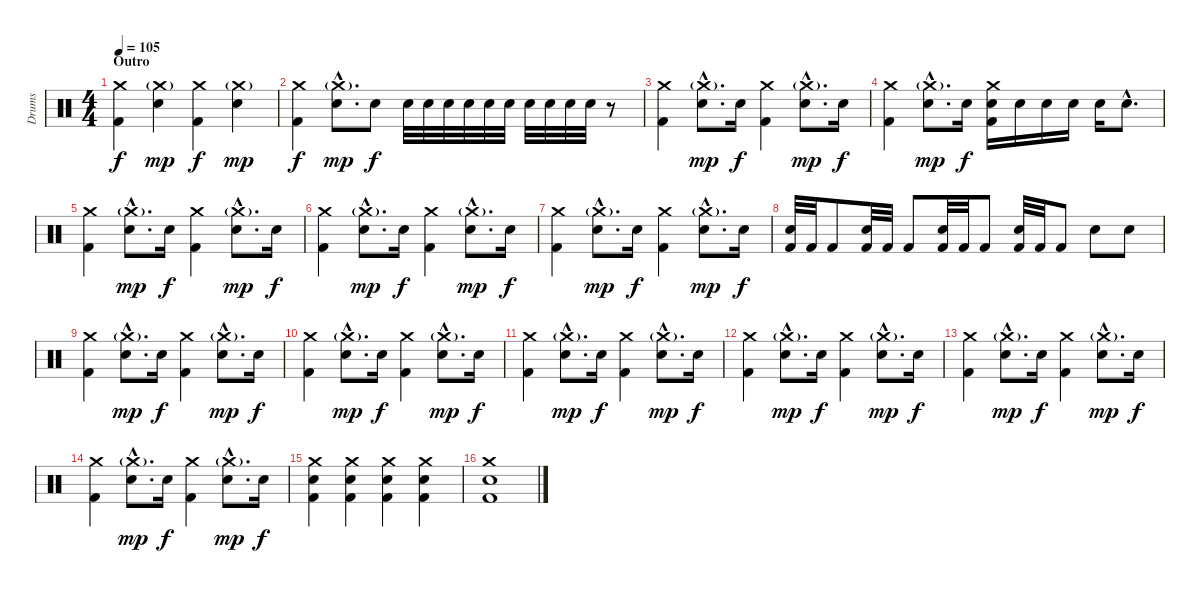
\track ("Drums" "Drums") {instrument percussion}
\staff {score}
\articulation defaults
\ts (4 4)
\section ("" "Outro")
\tempo 105
\clef neutral
\ks c
("Crash medium (hit)" "Kick (hit) 2").4{dy f} ("Crash medium (hit)"{g} "Snare (hit) 2").4{dy mp} ("Crash medium (hit)" "Kick (hit) 2").4{dy f} ("Crash medium (hit)"{g} "Snare (hit) 2").4{dy mp} |
("Crash medium (hit)" "Kick (hit) 2").4{dy f} ("Crash medium (hit)"{g hac} "Snare (hit) 2"{hac}).8{d dy mp} "Snare (hit) 2".8{dy f} "Snare (hit) 2".32 "Snare (hit) 2".32 "Snare (hit) 2".32 "Snare (hit) 2".32 "Snare (hit) 2".32 "Snare (hit) 2".32 "Snare (hit) 2".32 "Snare (hit) 2".32 "Snare (hit) 2".32 "Snare (hit) 2".32 r.8 |
("Crash medium (hit)" "Kick (hit) 2").4 ("Crash medium (hit)"{g hac} "Snare (hit) 2"{hac}).8{d dy mp} "Snare (hit) 2".16{dy f} ("Crash medium (hit)" "Kick (hit) 2").4 ("Crash medium (hit)"{g hac} "Snare (hit) 2"{hac}).8{d dy mp} "Snare (hit) 2".16{dy f} |
("Crash medium (hit)" "Kick (hit) 2").4 ("Crash medium (hit)"{g hac} "Snare (hit) 2"{hac}).8{d dy mp} "Snare (hit) 2".16{dy f} ("Crash medium (hit)" "Snare (hit) 2" "Kick (hit) 2").16 "Snare (hit) 2".16 "Snare (hit) 2".16 "Snare (hit) 2".16 "Snare (hit) 2".16 "Snare (hit) 2"{hac}.8{d} |
("Crash medium (hit)" "Kick (hit) 2").4 ("Crash medium (hit)"{g hac} "Snare (hit) 2"{hac}).8{d dy mp} "Snare (hit) 2".16{dy f} ("Crash medium (hit)" "Kick (hit) 2").4 ("Crash medium (hit)"{g hac} "Snare (hit) 2"{hac}).8{d dy mp} "Snare (hit) 2".16{dy f} |
("Crash medium (hit)" "Kick (hit) 2").4 ("Crash medium (hit)"{g hac} "Snare (hit) 2"{hac}).8{d dy mp} "Snare (hit) 2".16{dy f} ("Crash medium (hit)" "Kick (hit) 2").4 ("Crash medium (hit)"{g hac} "Snare (hit) 2"{hac}).8{d dy mp} "Snare (hit) 2".16{dy f} |
("Crash medium (hit)" "Kick (hit) 2").4 ("Crash medium (hit)"{g hac} "Snare (hit) 2"{hac}).8{d dy mp} "Snare (hit) 2".16{dy f} ("Crash medium (hit)" "Kick (hit) 2").4 ("Crash medium (hit)"{g hac} "Snare (hit) 2"{hac}).8{d dy mp} "Snare (hit) 2".16{dy f} |
("Snare (hit) 2" "Kick (hit) 2").32 "Kick (hit) 2".32 "Kick (hit) 2".8 ("Snare (hit) 2" "Kick (hit) 2").32 "Kick (hit) 2".32 "Kick (hit) 2".8 ("Snare (hit) 2" "Kick (hit) 2").32 "Kick (hit) 2".32 "Kick (hit) 2".8 ("Snare (hit) 2" "Kick (hit) 2").32 "Kick (hit) 2".32 "Kick (hit) 2".8 "Snare (hit) 2".8 "Snare (hit) 2".8 |
("Crash medium (hit)" "Kick (hit) 2").4 ("Crash medium (hit)"{g hac} "Snare (hit) 2"{hac}).8{d dy mp} "Snare (hit) 2".16{dy f} ("Crash medium (hit)" "Kick (hit) 2").4 ("Crash medium (hit)"{g hac} "Snare (hit) 2"{hac}).8{d dy mp} "Snare (hit) 2".16{dy f} |
("Crash medium (hit)" "Kick (hit) 2").4 ("Crash medium (hit)"{g hac} "Snare (hit) 2"{hac}).8{d dy mp} "Snare (hit) 2".16{dy f} ("Crash medium (hit)" "Kick (hit) 2").4 ("Crash medium (hit)"{g hac} "Snare (hit) 2"{hac}).8{d dy mp} "Snare (hit) 2".16{dy f} |
("Crash medium (hit)" "Kick (hit) 2").4 ("Crash medium (hit)"{g hac} "Snare (hit) 2"{hac}).8{d dy mp} "Snare (hit) 2".16{dy f} ("Crash medium (hit)" "Kick (hit) 2").4 ("Crash medium (hit)"{g hac} "Snare (hit) 2"{hac}).8{d dy mp} "Snare (hit) 2".16{dy f} |
("Crash medium (hit)" "Kick (hit) 2").4 ("Crash medium (hit)"{g hac} "Snare (hit) 2"{hac}).8{d dy mp} "Snare (hit) 2".16{dy f} ("Crash medium (hit)" "Kick (hit) 2").4 ("Crash medium (hit)"{g hac} "Snare (hit) 2"{hac}).8{d dy mp} "Snare (hit) 2".16{dy f} |
("Crash medium (hit)" "Kick (hit) 2").4 ("Crash medium (hit)"{g hac} "Snare (hit) 2"{hac}).8{d dy mp} "Snare (hit) 2".16{dy f} ("Crash medium (hit)" "Kick (hit) 2").4 ("Crash medium (hit)"{g hac} "Snare (hit) 2"{hac}).8{d dy mp} "Snare (hit) 2".16{dy f} |
("Crash medium (hit)" "Kick (hit) 2").4 ("Crash medium (hit)"{g hac} "Snare (hit) 2"{hac}).8{d dy mp} "Snare (hit) 2".16{dy f} ("Crash medium (hit)" "Kick (hit) 2").4 ("Crash medium (hit)"{g hac} "Snare (hit) 2"{hac}).8{d dy mp} "Snare (hit) 2".16{dy f} |
("Crash medium (hit)" "Snare (hit) 2" "Kick (hit) 2").4 ("Crash medium (hit)" "Snare (hit) 2" "Kick (hit) 2").4 ("Crash medium (hit)" "Snare (hit) 2" "Kick (hit) 2").4 ("Crash medium (hit)" "Snare (hit) 2" "Kick (hit) 2").4 |
("Crash medium (hit)" "Snare (hit) 2" "Kick (hit) 2").1
